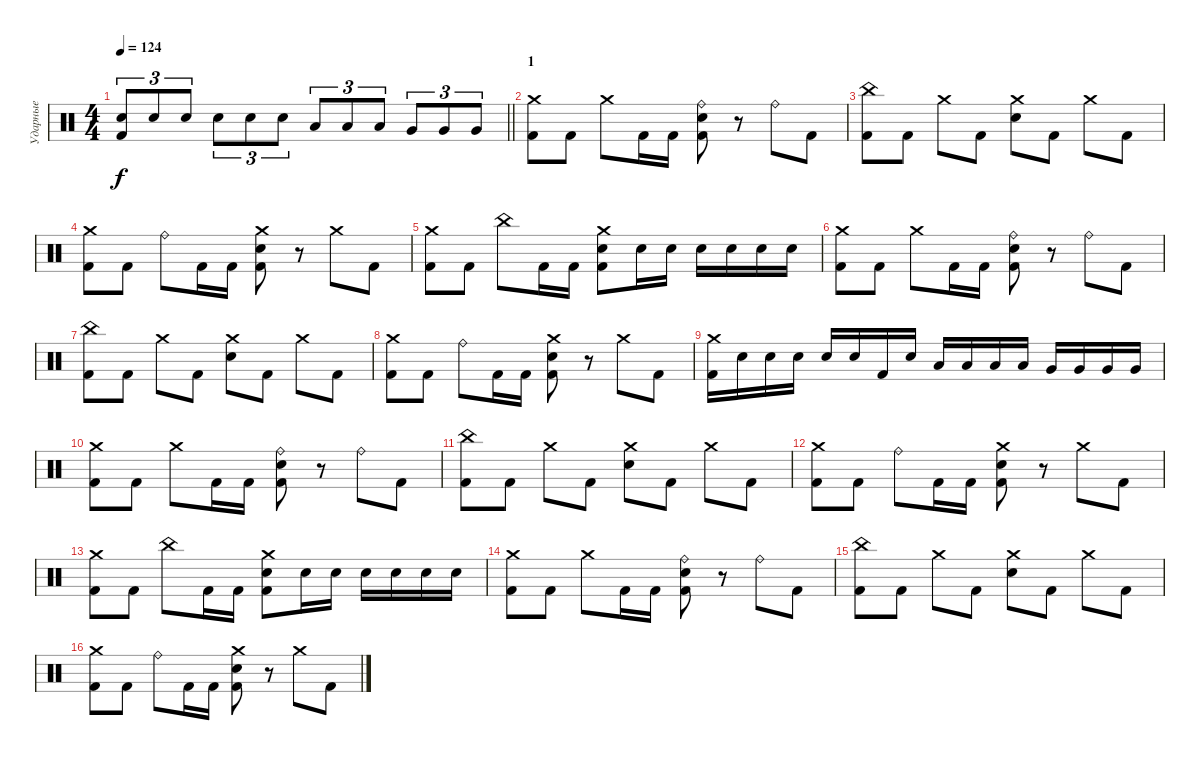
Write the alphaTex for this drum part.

\track ("Ударные" "Ударные") {instrument percussion}
\staff {score}
\articulation defaults
\ts (4 4)
\tempo 124
\clef neutral
\barLineRight lightlight
\ks c
("Snare (hit) 2" "Kick (hit) 2").8{tu (3 2) dy f} "Snare (hit) 2".8{tu (3 2)} "Snare (hit) 2".8{tu (3 2)} "Snare (hit) 2".8{tu (3 2)} "Snare (hit) 2".8{tu (3 2)} "Snare (hit) 2".8{tu (3 2)} "Low Tom (hit)".8{tu (3 2)} "Low Tom (hit)".8{tu (3 2)} "Low Tom (hit)".8{tu (3 2)} "Very Low Tom (hit)".8{tu (3 2)} "Very Low Tom (hit)".8{tu (3 2)} "Very Low Tom (hit)".8{tu (3 2)} |
\section ("" "1")
("Crash medium (hit)" "Kick (hit) 2").8 "Kick (hit) 2".8 "Crash medium (hit)".8 "Kick (hit) 2".16 "Kick (hit) 2".16 ("Ride (bell)" "Snare (hit) 2" "Kick (hit) 2").8 r.8 "Ride (bell)".8 "Kick (hit) 2".8 |
("China (hit)" "Kick (hit) 2").8 "Kick (hit) 2".8 "Crash medium (hit)".8 "Kick (hit) 2".8 ("Crash medium (hit)" "Snare (hit) 2").8 "Kick (hit) 2".8 "Crash medium (hit)".8 "Kick (hit) 2".8 |
("Crash medium (hit)" "Kick (hit) 2").8 "Kick (hit) 2".8 "Ride (bell)".8 "Kick (hit) 2".16 "Kick (hit) 2".16 ("Crash medium (hit)" "Snare (hit) 2" "Kick (hit) 2").8 r.8 "Crash medium (hit)".8 "Kick (hit) 2".8 |
("Crash medium (hit)" "Kick (hit) 2").8 "Kick (hit) 2".8 "China (hit)".8 "Kick (hit) 2".16 "Kick (hit) 2".16 ("Crash medium (hit)" "Snare (hit) 2" "Kick (hit) 2").8 "Snare (hit) 2".16 "Snare (hit) 2".16 "Snare (hit) 2".16 "Snare (hit) 2".16 "Snare (hit) 2".16 "Snare (hit) 2".16 |
("Crash medium (hit)" "Kick (hit) 2").8 "Kick (hit) 2".8 "Crash medium (hit)".8 "Kick (hit) 2".16 "Kick (hit) 2".16 ("Ride (bell)" "Snare (hit) 2" "Kick (hit) 2").8 r.8 "Ride (bell)".8 "Kick (hit) 2".8 |
("China (hit)" "Kick (hit) 2").8 "Kick (hit) 2".8 "Crash medium (hit)".8 "Kick (hit) 2".8 ("Crash medium (hit)" "Snare (hit) 2").8 "Kick (hit) 2".8 "Crash medium (hit)".8 "Kick (hit) 2".8 |
("Crash medium (hit)" "Kick (hit) 2").8 "Kick (hit) 2".8 "Ride (bell)".8 "Kick (hit) 2".16 "Kick (hit) 2".16 ("Crash medium (hit)" "Snare (hit) 2" "Kick (hit) 2").8 r.8 "Crash medium (hit)".8 "Kick (hit) 2".8 |
("Crash medium (hit)" "Kick (hit) 2").16 "Snare (hit) 2".16 "Snare (hit) 2".16 "Snare (hit) 2".16 "Snare (hit) 2".16 "Snare (hit) 2".16 "Kick (hit) 2".16 "Snare (hit) 2".16 "Low Tom (hit)".16 "Low Tom (hit)".16 "Low Tom (hit)".16 "Low Tom (hit)".16 "Very Low Tom (hit)".16 "Very Low Tom (hit)".16 "Very Low Tom (hit)".16 "Very Low Tom (hit)".16 |
("Crash medium (hit)" "Kick (hit) 2").8 "Kick (hit) 2".8 "Crash medium (hit)".8 "Kick (hit) 2".16 "Kick (hit) 2".16 ("Ride (bell)" "Snare (hit) 2" "Kick (hit) 2").8 r.8 "Ride (bell)".8 "Kick (hit) 2".8 |
("China (hit)" "Kick (hit) 2").8 "Kick (hit) 2".8 "Crash medium (hit)".8 "Kick (hit) 2".8 ("Crash medium (hit)" "Snare (hit) 2").8 "Kick (hit) 2".8 "Crash medium (hit)".8 "Kick (hit) 2".8 |
("Crash medium (hit)" "Kick (hit) 2").8 "Kick (hit) 2".8 "Ride (bell)".8 "Kick (hit) 2".16 "Kick (hit) 2".16 ("Crash medium (hit)" "Snare (hit) 2" "Kick (hit) 2").8 r.8 "Crash medium (hit)".8 "Kick (hit) 2".8 |
("Crash medium (hit)" "Kick (hit) 2").8 "Kick (hit) 2".8 "China (hit)".8 "Kick (hit) 2".16 "Kick (hit) 2".16 ("Crash medium (hit)" "Snare (hit) 2" "Kick (hit) 2").8 "Snare (hit) 2".16 "Snare (hit) 2".16 "Snare (hit) 2".16 "Snare (hit) 2".16 "Snare (hit) 2".16 "Snare (hit) 2".16 |
("Crash medium (hit)" "Kick (hit) 2").8 "Kick (hit) 2".8 "Crash medium (hit)".8 "Kick (hit) 2".16 "Kick (hit) 2".16 ("Ride (bell)" "Snare (hit) 2" "Kick (hit) 2").8 r.8 "Ride (bell)".8 "Kick (hit) 2".8 |
("China (hit)" "Kick (hit) 2").8 "Kick (hit) 2".8 "Crash medium (hit)".8 "Kick (hit) 2".8 ("Crash medium (hit)" "Snare (hit) 2").8 "Kick (hit) 2".8 "Crash medium (hit)".8 "Kick (hit) 2".8 |
("Crash medium (hit)" "Kick (hit) 2").8 "Kick (hit) 2".8 "Ride (bell)".8 "Kick (hit) 2".16 "Kick (hit) 2".16 ("Crash medium (hit)" "Snare (hit) 2" "Kick (hit) 2").8 r.8 "Crash medium (hit)".8 "Kick (hit) 2".8
